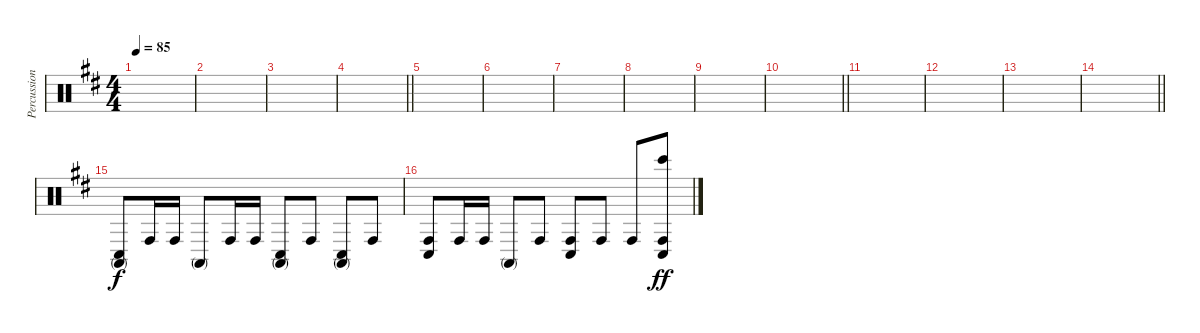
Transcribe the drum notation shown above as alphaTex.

\track ("Percussions" "Percussion") {instrument percussion}
\staff {score}
\articulation defaults
\ts (4 4)
\tempo 85
\clef neutral
\ks bminor
|
|
|
\barLineRight lightlight
|
|
|
|
|
|
\barLineRight lightlight
|
|
|
|
\barLineRight lightlight
|
("Conga low (hit)" "Conga high (mute)").8 "Conga high (hit)".16 "Conga high (hit)".16 "Conga high (mute)".8 "Conga high (hit)".16 "Conga high (hit)".16 ("Conga low (hit)" "Conga high (mute)").8 "Conga high (hit)".8 ("Conga low (hit)" "Conga high (mute)").8 "Conga high (hit)".8 |
("Conga high (hit)" "Conga low (hit)").8 "Conga high (hit)".16 "Conga high (hit)".16 "Conga high (mute)".8 "Conga high (hit)".8 ("Conga high (hit)" "Conga low (hit)").8 "Conga high (hit)".8 "Conga high (hit)".8 ("Bongo High (hit)" "Conga high (hit)" "Conga low (hit)").8{dy ff}
